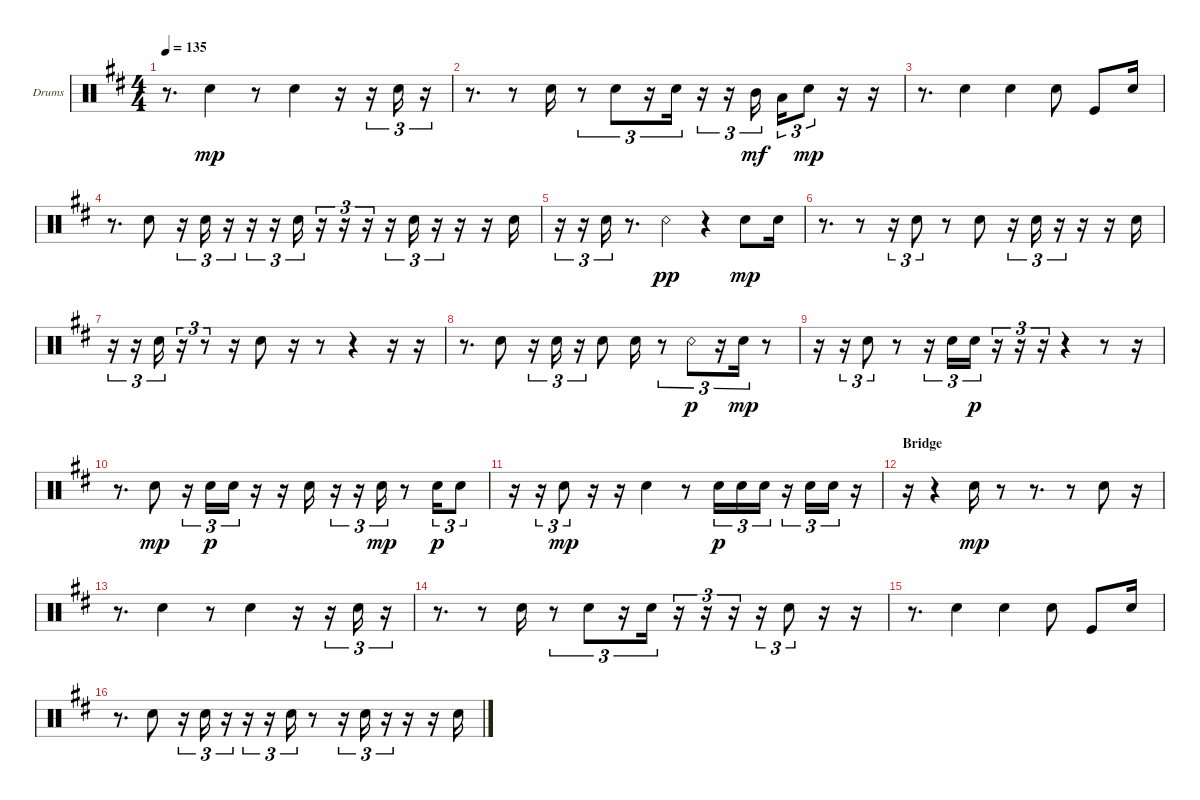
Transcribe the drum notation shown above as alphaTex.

\bracketExtendMode groupsimilarinstruments
\firstSystemTrackNameOrientation horizontal
\otherSystemsTrackNameOrientation horizontal
\track ("Snare" "Drums") {instrument percussion}
\staff {score}
\articulation defaults
\ts (4 4)
\tempo 135
\clef neutral
\ks d
r.8{d dy mp} "Snare (hit) 2".4 r.8 "Snare (hit) 2".4 r.16 r.16{tu (3 2)} "Snare (hit) 2".16{tu (3 2)} r.16{tu (3 2)} |
r.8{d} r.8 "Snare (hit) 2".16 r.8{tu (3 2)} "Snare (hit) 2".8{tu (3 2)} r.16{tu (3 2)} "Snare (hit) 2".16{tu (3 2)} r.16{tu (3 2)} r.16{tu (3 2)} "Mid Tom (hit)".16{tu (3 2) dy mf} "Low Tom (hit)".16{tu (3 2)} "Snare (hit) 2".8{tu (3 2) dy mp} r.16 r.16 |
r.8{d} "Snare (hit) 2".4 "Snare (hit) 2".4 "Snare (hit) 2".8 "Kick (hit)".8 "Snare (hit) 2".16 |
r.8{d} "Snare (hit) 2".8 r.16{tu (3 2)} "Snare (hit) 2".16{tu (3 2)} r.16{tu (3 2)} r.16{tu (3 2)} r.16{tu (3 2)} "Snare (hit) 2".16{tu (3 2)} r.16{tu (3 2)} r.16{tu (3 2)} r.16{tu (3 2)} r.16{tu (3 2)} "Snare (hit) 2".16{tu (3 2)} r.16{tu (3 2)} r.16 r.16 "Snare (hit) 2".16 |
r.16{tu (3 2)} r.16{tu (3 2)} "Snare (hit) 2".16{tu (3 2)} r.8{d} "Snare (rim shot)".4{dy pp} r.4 "Snare (hit) 2".8{dy mp} "Snare (hit) 2".16 |
r.8{d} r.8 r.16{tu (3 2)} "Snare (hit) 2".8{tu (3 2)} r.8 "Snare (hit) 2".8 r.16{tu (3 2)} "Snare (hit) 2".16{tu (3 2)} r.16{tu (3 2)} r.16 r.16 "Snare (hit) 2".16 |
r.16{tu (3 2)} r.16{tu (3 2)} "Snare (hit) 2".16{tu (3 2)} r.16{tu (3 2)} r.8{tu (3 2)} r.16 "Snare (hit) 2".8 r.16 r.8 r.4 r.16 r.16 |
r.8{d} "Snare (hit) 2".8 r.16{tu (3 2)} "Snare (hit) 2".16{tu (3 2)} r.16{tu (3 2)} "Snare (hit) 2".8 "Snare (hit) 2".16 r.8{tu (3 2)} "Snare (rim shot)".8{tu (3 2) dy p} r.16{tu (3 2)} "Snare (hit) 2".16{tu (3 2) dy mp} r.8 |
r.16 r.16{tu (3 2)} "Snare (hit) 2".8{tu (3 2)} r.8 r.16{tu (3 2)} "Snare (hit) 2".16{tu (3 2)} "Snare (hit) 2".16{tu (3 2) dy p} r.16{tu (3 2)} r.16{tu (3 2)} r.16{tu (3 2)} r.4 r.8 r.16 |
r.8{d} "Snare (hit) 2".8{dy mp} r.16{tu (3 2)} "Snare (hit) 2".16{tu (3 2) dy p} "Snare (hit) 2".16{tu (3 2)} r.16 r.16 "Snare (hit) 2".16 r.16{tu (3 2)} r.16{tu (3 2)} "Snare (hit) 2".16{tu (3 2) dy mp} r.8 "Snare (hit) 2".16{tu (3 2) dy p} "Snare (hit) 2".8{tu (3 2)} |
r.16 r.16{tu (3 2)} "Snare (hit) 2".8{tu (3 2) dy mp} r.16 r.16 "Snare (hit) 2".4 r.8 "Snare (hit) 2".16{tu (3 2) dy p} "Snare (hit) 2".16{tu (3 2)} "Snare (hit) 2".16{tu (3 2)} r.16{tu (3 2)} "Snare (hit) 2".16{tu (3 2)} "Snare (hit) 2".16{tu (3 2)} r.16 |
\section ("" "Bridge")
r.16 r.4 "Snare (hit) 2".16{dy mp} r.8 r.8{d} r.8 "Snare (hit) 2".8 r.16 |
r.8{d} "Snare (hit) 2".4 r.8 "Snare (hit) 2".4 r.16 r.16{tu (3 2)} "Snare (hit) 2".16{tu (3 2)} r.16{tu (3 2)} |
r.8{d} r.8 "Snare (hit) 2".16 r.8{tu (3 2)} "Snare (hit) 2".8{tu (3 2)} r.16{tu (3 2)} "Snare (hit) 2".16{tu (3 2)} r.16{tu (3 2)} r.16{tu (3 2)} r.16{tu (3 2)} r.16{tu (3 2)} "Snare (hit) 2".8{tu (3 2)} r.16 r.16 |
r.8{d} "Snare (hit) 2".4 "Snare (hit) 2".4 "Snare (hit) 2".8 "Kick (hit)".8 "Snare (hit) 2".16 |
r.8{d} "Snare (hit) 2".8 r.16{tu (3 2)} "Snare (hit) 2".16{tu (3 2)} r.16{tu (3 2)} r.16{tu (3 2)} r.16{tu (3 2)} "Snare (hit) 2".16{tu (3 2)} r.8 r.16{tu (3 2)} "Snare (hit) 2".16{tu (3 2)} r.16{tu (3 2)} r.16 r.16 "Snare (hit) 2".16
